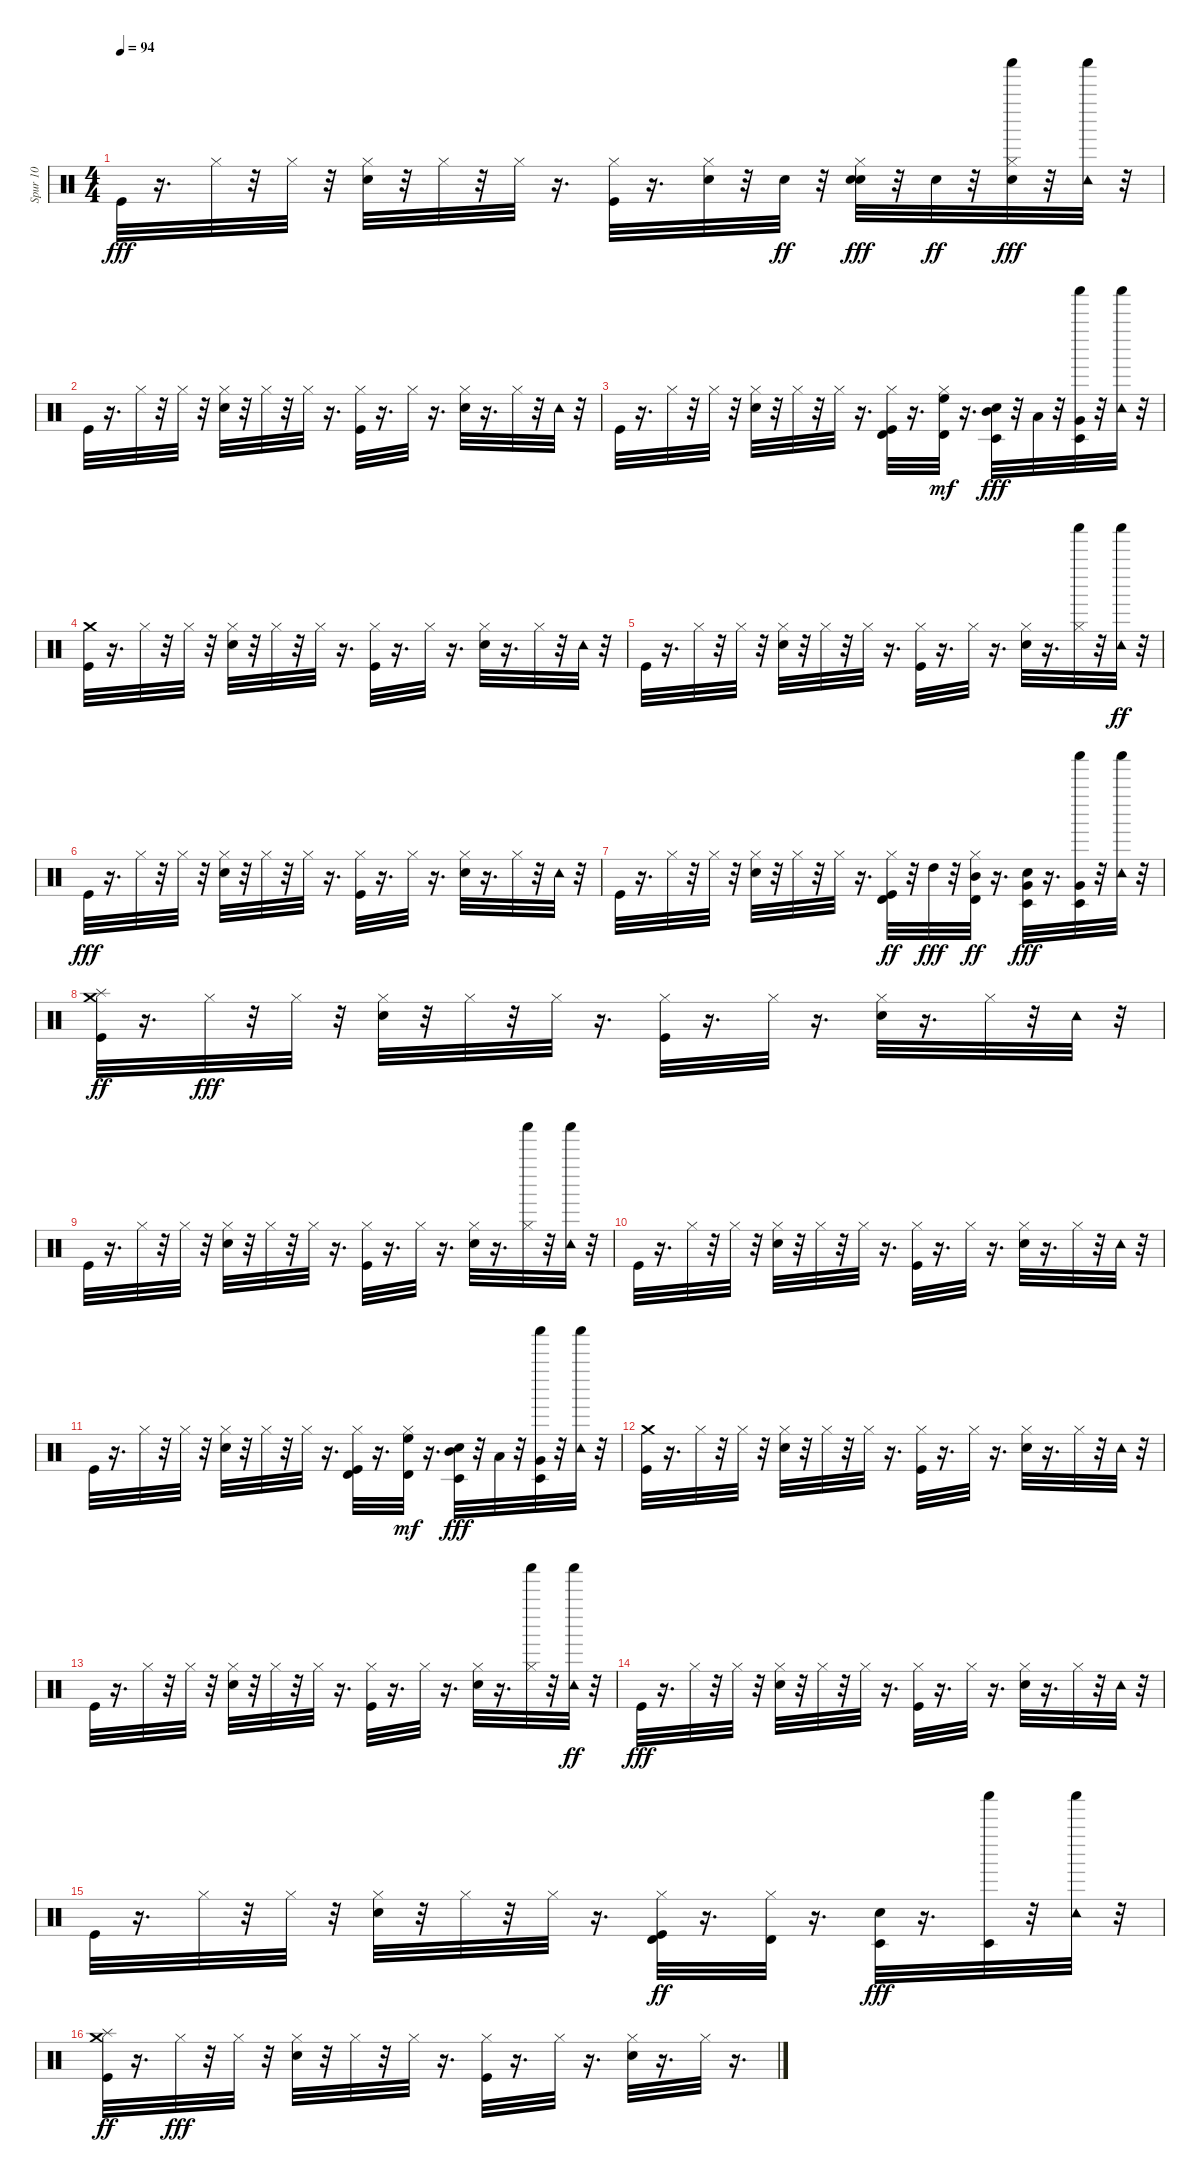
\track ("Spur 10" "Spur 10") {instrument percussion}
\staff {score}
\articulation defaults
\ts (4 4)
\tempo 94
\clef neutral
\ks c "Kick (hit)".32{dy fff}
r.16{d} "Hi-Hat (closed)".32 r.32 "Hi-Hat (closed)".32 r.32 ("Snare (hit) 2" "Hi-Hat (closed)").32 r.32 "Hi-Hat (closed)".32 r.32 "Hi-Hat (closed)".32 r.16{d} ("Kick (hit)" "Hi-Hat (closed)").32 r.16{d} ("Hand Clap (hit)" "Hi-Hat (closed)").32 r.32 "Hand Clap (hit)".32{dy ff} r.32 ("Snare (hit) 2" "Hand Clap (hit)" "Hi-Hat (closed)").32{dy fff} r.32 "Hand Clap (hit)".32{dy ff} r.32 ("Hi-Hat (closed)" "Shaker (hit)" "Hand Clap (hit)").32{dy fff} r.32 ("Tambourine (hit)" "Shaker (hit)").32 r.32 |
"Kick (hit)".32 r.16{d} "Hi-Hat (closed)".32 r.32 "Hi-Hat (closed)".32 r.32 ("Snare (hit) 2" "Hi-Hat (closed)").32 r.32 "Hi-Hat (closed)".32 r.32 "Hi-Hat (closed)".32 r.16{d} ("Kick (hit)" "Hi-Hat (closed)").32 r.16{d} "Hi-Hat (closed)".32 r.16{d} ("Snare (hit) 2" "Hi-Hat (closed)").32 r.16{d} "Hi-Hat (closed)".32 r.32 "Tambourine (hit)".32 r.32 |
"Kick (hit)".32 r.16{d} "Hi-Hat (closed)".32 r.32 "Hi-Hat (closed)".32 r.32 ("Snare (hit) 2" "Hi-Hat (closed)").32 r.32 "Hi-Hat (closed)".32 r.32 "Hi-Hat (closed)".32 r.16{d} ("Kick (hit)" "Hi-Hat (closed)" "Timbale high (hit)").32 r.16{d} ("Hi-Hat (closed)" "High Floor Tom (hit)" "Timbale high (hit)").32{dy mf} r.16{d} ("Snare (hit) 2" "Mid Tom (hit)" "Timbale low (hit)").32{dy fff} r.32 "Low Tom (hit)".32 r.32 ("Shaker (hit)" "Very Low Tom (hit)" "Timbale low (hit)").32 r.32 ("Tambourine (hit)" "Shaker (hit)").32 r.32 |
("Kick (hit)" "Crash medium (hit)").32 r.16{d} "Hi-Hat (closed)".32 r.32 "Hi-Hat (closed)".32 r.32 ("Snare (hit) 2" "Hi-Hat (closed)").32 r.32 "Hi-Hat (closed)".32 r.32 "Hi-Hat (closed)".32 r.16{d} ("Kick (hit)" "Hi-Hat (closed)").32 r.16{d} "Hi-Hat (closed)".32 r.16{d} ("Snare (hit) 2" "Hi-Hat (closed)").32 r.16{d} "Hi-Hat (closed)".32 r.32 "Tambourine (hit)".32 r.32 |
"Kick (hit)".32 r.16{d} "Hi-Hat (closed)".32 r.32 "Hi-Hat (closed)".32 r.32 ("Snare (hit) 2" "Hi-Hat (closed)").32 r.32 "Hi-Hat (closed)".32 r.32 "Hi-Hat (closed)".32 r.16{d} ("Kick (hit)" "Hi-Hat (closed)").32 r.16{d} "Hi-Hat (closed)".32 r.16{d} ("Snare (hit) 2" "Hi-Hat (closed)").32 r.16{d} ("Hi-Hat (closed)" "Shaker (hit)").32 r.32 ("Tambourine (hit)" "Shaker (hit)").32{dy ff} r.32 |
"Kick (hit)".32{dy fff} r.16{d} "Hi-Hat (closed)".32 r.32 "Hi-Hat (closed)".32 r.32 ("Snare (hit) 2" "Hi-Hat (closed)").32 r.32 "Hi-Hat (closed)".32 r.32 "Hi-Hat (closed)".32 r.16{d} ("Kick (hit)" "Hi-Hat (closed)").32 r.16{d} "Hi-Hat (closed)".32 r.16{d} ("Snare (hit) 2" "Hi-Hat (closed)").32 r.16{d} "Hi-Hat (closed)".32 r.32 "Tambourine (hit)".32 r.32 |
"Kick (hit)".32 r.16{d} "Hi-Hat (closed)".32 r.32 "Hi-Hat (closed)".32 r.32 ("Snare (hit) 2" "Hi-Hat (closed)").32 r.32 "Hi-Hat (closed)".32 r.32 "Hi-Hat (closed)".32 r.16{d} ("Kick (hit)" "Hi-Hat (closed)" "Timbale high (hit)").32{dy ff} r.32 "High Tom (hit)".32{dy fff} r.32 ("Mid Tom (hit)" "Hi-Hat (closed)" "Timbale high (hit)").32{dy ff} r.16{d} ("Snare (hit) 2" "Timbale low (hit)" "Very Low Tom (hit)").32{dy fff} r.16{d} ("Shaker (hit)" "Timbale low (hit)" "Very Low Tom (hit)").32 r.32 ("Tambourine (hit)" "Shaker (hit)").32 r.32 |
("Kick (hit)" "Splash (hit)" "Crash medium (hit)").32{dy ff} r.16{d} "Hi-Hat (closed)".32{dy fff} r.32 "Hi-Hat (closed)".32 r.32 ("Snare (hit) 2" "Hi-Hat (closed)").32 r.32 "Hi-Hat (closed)".32 r.32 "Hi-Hat (closed)".32 r.16{d} ("Kick (hit)" "Hi-Hat (closed)").32 r.16{d} "Hi-Hat (closed)".32 r.16{d} ("Snare (hit) 2" "Hi-Hat (closed)").32 r.16{d} "Hi-Hat (closed)".32 r.32 "Tambourine (hit)".32 r.32 |
"Kick (hit)".32 r.16{d} "Hi-Hat (closed)".32 r.32 "Hi-Hat (closed)".32 r.32 ("Snare (hit) 2" "Hi-Hat (closed)").32 r.32 "Hi-Hat (closed)".32 r.32 "Hi-Hat (closed)".32 r.16{d} ("Kick (hit)" "Hi-Hat (closed)").32 r.16{d} "Hi-Hat (closed)".32 r.16{d} ("Snare (hit) 2" "Hi-Hat (closed)").32 r.16{d} ("Hi-Hat (closed)" "Shaker (hit)").32 r.32 ("Tambourine (hit)" "Shaker (hit)").32 r.32 |
"Kick (hit)".32 r.16{d} "Hi-Hat (closed)".32 r.32 "Hi-Hat (closed)".32 r.32 ("Snare (hit) 2" "Hi-Hat (closed)").32 r.32 "Hi-Hat (closed)".32 r.32 "Hi-Hat (closed)".32 r.16{d} ("Kick (hit)" "Hi-Hat (closed)").32 r.16{d} "Hi-Hat (closed)".32 r.16{d} ("Snare (hit) 2" "Hi-Hat (closed)").32 r.16{d} "Hi-Hat (closed)".32 r.32 "Tambourine (hit)".32 r.32 |
"Kick (hit)".32 r.16{d} "Hi-Hat (closed)".32 r.32 "Hi-Hat (closed)".32 r.32 ("Snare (hit) 2" "Hi-Hat (closed)").32 r.32 "Hi-Hat (closed)".32 r.32 "Hi-Hat (closed)".32 r.16{d} ("Kick (hit)" "Hi-Hat (closed)" "Timbale high (hit)").32 r.16{d} ("Hi-Hat (closed)" "High Floor Tom (hit)" "Timbale high (hit)").32{dy mf} r.16{d} ("Snare (hit) 2" "Mid Tom (hit)" "Timbale low (hit)").32{dy fff} r.32 "Low Tom (hit)".32 r.32 ("Shaker (hit)" "Very Low Tom (hit)" "Timbale low (hit)").32 r.32 ("Tambourine (hit)" "Shaker (hit)").32 r.32 |
("Kick (hit)" "Crash medium (hit)").32 r.16{d} "Hi-Hat (closed)".32 r.32 "Hi-Hat (closed)".32 r.32 ("Snare (hit) 2" "Hi-Hat (closed)").32 r.32 "Hi-Hat (closed)".32 r.32 "Hi-Hat (closed)".32 r.16{d} ("Kick (hit)" "Hi-Hat (closed)").32 r.16{d} "Hi-Hat (closed)".32 r.16{d} ("Snare (hit) 2" "Hi-Hat (closed)").32 r.16{d} "Hi-Hat (closed)".32 r.32 "Tambourine (hit)".32 r.32 |
"Kick (hit)".32 r.16{d} "Hi-Hat (closed)".32 r.32 "Hi-Hat (closed)".32 r.32 ("Snare (hit) 2" "Hi-Hat (closed)").32 r.32 "Hi-Hat (closed)".32 r.32 "Hi-Hat (closed)".32 r.16{d} ("Kick (hit)" "Hi-Hat (closed)").32 r.16{d} "Hi-Hat (closed)".32 r.16{d} ("Snare (hit) 2" "Hi-Hat (closed)").32 r.16{d} ("Hi-Hat (closed)" "Shaker (hit)").32 r.32 ("Tambourine (hit)" "Shaker (hit)").32{dy ff} r.32 |
"Kick (hit)".32{dy fff} r.16{d} "Hi-Hat (closed)".32 r.32 "Hi-Hat (closed)".32 r.32 ("Snare (hit) 2" "Hi-Hat (closed)").32 r.32 "Hi-Hat (closed)".32 r.32 "Hi-Hat (closed)".32 r.16{d} ("Kick (hit)" "Hi-Hat (closed)").32 r.16{d} "Hi-Hat (closed)".32 r.16{d} ("Snare (hit) 2" "Hi-Hat (closed)").32 r.16{d} "Hi-Hat (closed)".32 r.32 "Tambourine (hit)".32 r.32 |
"Kick (hit)".32 r.16{d} "Hi-Hat (closed)".32 r.32 "Hi-Hat (closed)".32 r.32 ("Snare (hit) 2" "Hi-Hat (closed)").32 r.32 "Hi-Hat (closed)".32 r.32 "Hi-Hat (closed)".32 r.16{d} ("Kick (hit)" "Hi-Hat (closed)" "Timbale high (hit)").32{dy ff} r.16{d} ("Hi-Hat (closed)" "Timbale high (hit)").32 r.16{d} ("Snare (hit) 2" "Timbale low (hit)").32{dy fff} r.16{d} ("Shaker (hit)" "Timbale low (hit)").32 r.32 ("Tambourine (hit)" "Shaker (hit)").32 r.32 |
("Kick (hit)" "Splash (hit)" "Crash medium (hit)").32{dy ff} r.16{d} "Hi-Hat (closed)".32{dy fff} r.32 "Hi-Hat (closed)".32 r.32 ("Snare (hit) 2" "Hi-Hat (closed)").32 r.32 "Hi-Hat (closed)".32 r.32 "Hi-Hat (closed)".32 r.16{d} ("Kick (hit)" "Hi-Hat (closed)").32 r.16{d} "Hi-Hat (closed)".32 r.16{d} ("Snare (hit) 2" "Hi-Hat (closed)").32 r.16{d} "Hi-Hat (closed)".32 r.16{d}
